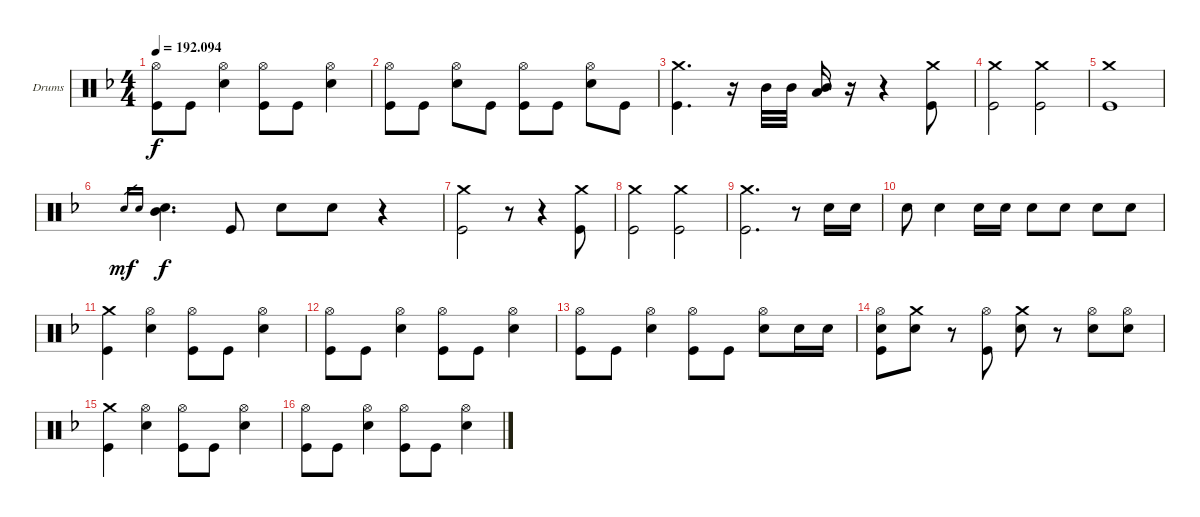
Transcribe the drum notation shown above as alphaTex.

\bracketExtendMode groupsimilarinstruments
\firstSystemTrackNameOrientation horizontal
\otherSystemsTrackNameOrientation horizontal
\track ("Александр Манякин" "Drums") {instrument percussion}
\staff {score}
\articulation defaults
\ts (4 4)
\tempo
192.094
\accidentals auto
\clef neutral
\ottava regular
\simile none
\ks f
("Hi-Hat (open)" "Kick (hit)").8{dy f} "Kick (hit)".8 ("Hi-Hat (open)" "Snare (hit) 2").4 ("Hi-Hat (open)" "Kick (hit)").8 "Kick (hit)".8 ("Hi-Hat (open)" "Snare (hit) 2").4 |
("Hi-Hat (open)" "Kick (hit)").8 "Kick (hit)".8 ("Hi-Hat (open)" "Snare (hit) 2").8 "Kick (hit)".8 ("Hi-Hat (open)" "Kick (hit)").8 "Kick (hit)".8 ("Hi-Hat (open)" "Snare (hit) 2").8 "Kick (hit)".8 |
("Crash medium (hit)" "Kick (hit)").4{d} r.16 "Mid Tom (hit)".32 "Mid Tom (hit)".32 ("Mid Tom (hit)" "Low Tom (hit)").16 r.16 r.4 ("Crash medium (hit)" "Kick (hit)").8 |
("Crash medium (hit)" "Kick (hit)").2 ("Crash medium (hit)" "Kick (hit)").2 |
("Crash medium (hit)" "Kick (hit)").1 |
"Snare (hit) 2".16{gr dy mf} "Snare (hit) 2".16{gr} ("Snare (hit) 2" "Mid Tom (hit)").4{d dy f} "Kick (hit)".8 "Snare (hit) 2".8 "Snare (hit) 2".8 r.4 |
("Crash medium (hit)" "Kick (hit)").2 r.8 r.4 ("Crash medium (hit)" "Kick (hit)").8 |
("Crash medium (hit)" "Kick (hit)").2 ("Crash medium (hit)" "Kick (hit)").2 |
("Crash medium (hit)" "Kick (hit)").2{d} r.8 "Snare (hit) 2".16 "Snare (hit) 2".16 |
"Snare (hit) 2".8 "Snare (hit) 2".4 "Snare (hit) 2".16 "Snare (hit) 2".16 "Snare (hit) 2".8 "Snare (hit) 2".8 "Snare (hit) 2".8 "Snare (hit) 2".8 |
("Crash medium (hit)" "Kick (hit)").4 ("Hi-Hat (open)" "Snare (hit) 2").4 ("Hi-Hat (open)" "Kick (hit)").8 "Kick (hit)".8 ("Hi-Hat (open)" "Snare (hit) 2").4 |
("Hi-Hat (open)" "Kick (hit)").8 "Kick (hit)".8 ("Hi-Hat (open)" "Snare (hit) 2").4 ("Hi-Hat (open)" "Kick (hit)").8 "Kick (hit)".8 ("Hi-Hat (open)" "Snare (hit) 2").4 |
("Hi-Hat (open)" "Kick (hit)").8 "Kick (hit)".8 ("Hi-Hat (open)" "Snare (hit) 2").4 ("Hi-Hat (open)" "Kick (hit)").8 "Kick (hit)".8 ("Hi-Hat (open)" "Snare (hit) 2").8 "Snare (hit) 2".16 "Snare (hit) 2".16 |
("Hi-Hat (open)" "Snare (hit) 2" "Kick (hit)").8 ("Crash medium (hit)" "Snare (hit) 2").8 r.8 ("Hi-Hat (open)" "Kick (hit)").8 ("Crash medium (hit)" "Snare (hit) 2").8 r.8 ("Hi-Hat (open)" "Snare (hit) 2").8 ("Hi-Hat (open)" "Snare (hit) 2").8 |
("Crash medium (hit)" "Kick (hit)").4 ("Hi-Hat (open)" "Snare (hit) 2").4 ("Hi-Hat (open)" "Kick (hit)").8 "Kick (hit)".8 ("Hi-Hat (open)" "Snare (hit) 2").4 |
("Hi-Hat (open)" "Kick (hit)").8 "Kick (hit)".8 ("Hi-Hat (open)" "Snare (hit) 2").4 ("Hi-Hat (open)" "Kick (hit)").8 "Kick (hit)".8 ("Hi-Hat (open)" "Snare (hit) 2").4
